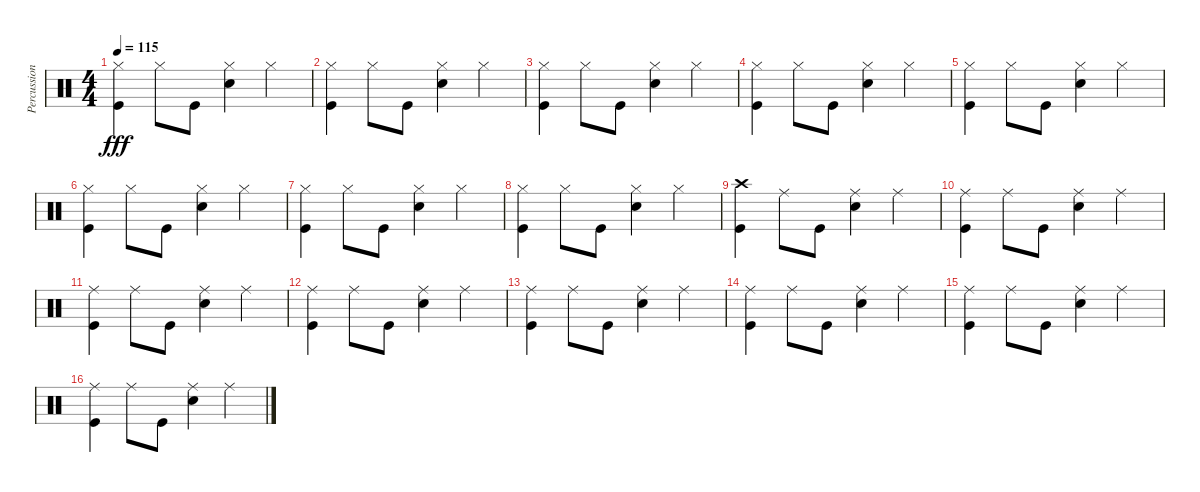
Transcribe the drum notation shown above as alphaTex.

\track ("Percussioni" "Percussion") {instrument percussion}
\staff {score}
\articulation defaults
\ts (4 4)
\tempo 115
\clef neutral
\ks c
("Hi-Hat (closed)" "Kick (hit)").4{dy fff} "Hi-Hat (closed)".8 "Kick (hit)".8 ("Hi-Hat (closed)" "Snare (hit) 2").4 "Hi-Hat (closed)".4 |
("Hi-Hat (closed)" "Kick (hit)").4 "Hi-Hat (closed)".8 "Kick (hit)".8 ("Hi-Hat (closed)" "Snare (hit) 2").4 "Hi-Hat (closed)".4 |
("Hi-Hat (closed)" "Kick (hit)").4 "Hi-Hat (closed)".8 "Kick (hit)".8 ("Hi-Hat (closed)" "Snare (hit) 2").4 "Hi-Hat (closed)".4 |
("Hi-Hat (closed)" "Kick (hit)").4 "Hi-Hat (closed)".8 "Kick (hit)".8 ("Hi-Hat (closed)" "Snare (hit) 2").4 "Hi-Hat (closed)".4 |
("Hi-Hat (closed)" "Kick (hit)").4 "Hi-Hat (closed)".8 "Kick (hit)".8 ("Hi-Hat (closed)" "Snare (hit) 2").4 "Hi-Hat (closed)".4 |
("Hi-Hat (closed)" "Kick (hit)").4 "Hi-Hat (closed)".8 "Kick (hit)".8 ("Hi-Hat (closed)" "Snare (hit) 2").4 "Hi-Hat (closed)".4 |
("Hi-Hat (closed)" "Kick (hit)").4 "Hi-Hat (closed)".8 "Kick (hit)".8 ("Hi-Hat (closed)" "Snare (hit) 2").4 "Hi-Hat (closed)".4 |
("Hi-Hat (closed)" "Kick (hit)").4 "Hi-Hat (closed)".8 "Kick (hit)".8 ("Hi-Hat (closed)" "Snare (hit) 2").4 "Hi-Hat (closed)".4 |
("Crash high (hit)" "Kick (hit)").4 "Ride (middle)".8 "Kick (hit)".8 ("Ride (middle)" "Snare (hit) 2").4 "Ride (middle)".4 |
("Ride (middle)" "Kick (hit)").4 "Ride (middle)".8 "Kick (hit)".8 ("Ride (middle)" "Snare (hit) 2").4 "Ride (middle)".4 |
("Ride (middle)" "Kick (hit)").4 "Ride (middle)".8 "Kick (hit)".8 ("Ride (middle)" "Snare (hit) 2").4 "Ride (middle)".4 |
("Ride (middle)" "Kick (hit)").4 "Ride (middle)".8 "Kick (hit)".8 ("Ride (middle)" "Snare (hit) 2").4 "Ride (middle)".4 |
("Ride (middle)" "Kick (hit)").4 "Ride (middle)".8 "Kick (hit)".8 ("Ride (middle)" "Snare (hit) 2").4 "Ride (middle)".4 |
("Ride (middle)" "Kick (hit)").4 "Ride (middle)".8 "Kick (hit)".8 ("Ride (middle)" "Snare (hit) 2").4 "Ride (middle)".4 |
("Ride (middle)" "Kick (hit)").4 "Ride (middle)".8 "Kick (hit)".8 ("Ride (middle)" "Snare (hit) 2").4 "Ride (middle)".4 |
("Ride (middle)" "Kick (hit)").4 "Ride (middle)".8 "Kick (hit)".8 ("Ride (middle)" "Snare (hit) 2").4 "Ride (middle)".4
